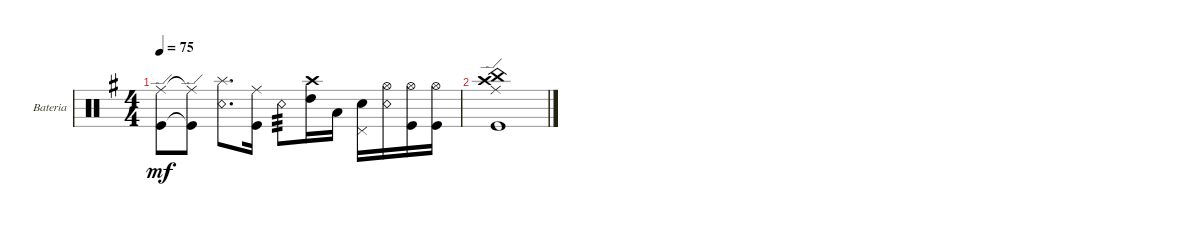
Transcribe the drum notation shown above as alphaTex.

\defaultSystemsLayout 4
\bracketExtendMode groupsimilarinstruments
\firstSystemTrackNameOrientation horizontal
\otherSystemsTrackNameOrientation horizontal
\track ("Bateria" "Bateria") {multiBarRest instrument percussion}
\staff {score}
\articulation defaults
\ts (4 4)
\tempo 75
\clef neutral
\ks g
("Kick (hit)" "Ride (edge)").8{dy mf} ("Kick (hit)"{t} "Ride (edge)"{t}).8 ("Snare (rim shot)" "Splash (hit)").8{d} ("Kick (hit)" "Ride (middle)").16 "Snare (rim shot)".8{tp 3} ("High Tom (hit)" "Crash high (hit)").16 "Low Tom (hit)".16 ("Snare (hit) 2" "Pedal Hi-Hat (hit)").16 ("Snare (rim shot)" "Hi-Hat (open)").16 ("Kick (hit)" "Hi-Hat (open)").16 ("Kick (hit)" "Hi-Hat (open)").16 |
("Kick (hit)" "Ride (edge)" "Crash high (hit)" "China (hit)").1
